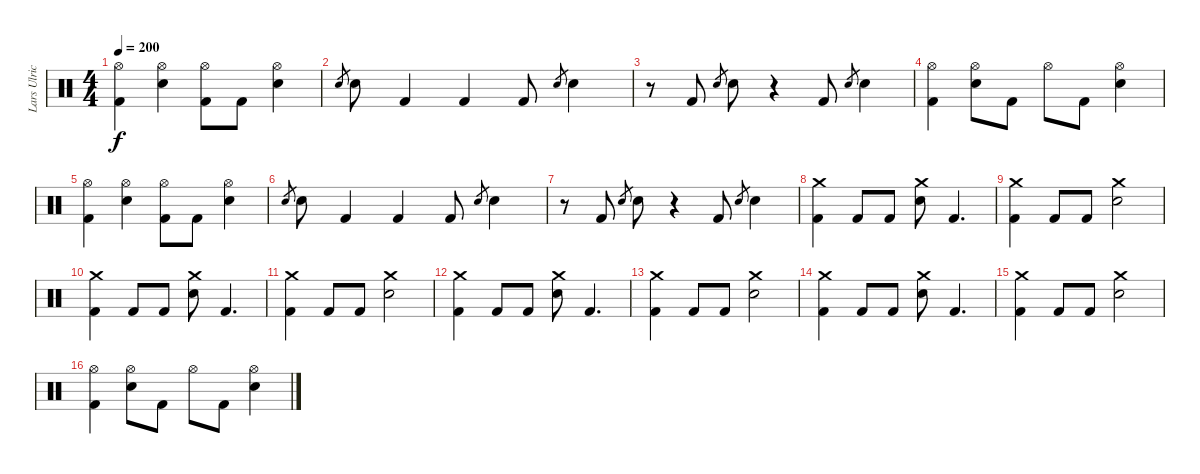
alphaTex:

\track ("Lars Ulrich" "Lars Ulric") {instrument percussion}
\staff {score}
\articulation defaults
\ts (4 4)
\tempo 200
\clef neutral
\ks c
("Hi-Hat (open)" "Kick (hit) 2").4{dy f} ("Hi-Hat (open)" "Electric Snare (hit)").4 ("Hi-Hat (open)" "Kick (hit) 2").8 "Kick (hit) 2".8 ("Hi-Hat (open)" "Electric Snare (hit)").4 |
"Electric Snare (hit)".8{gr} "Electric Snare (hit)".8 "Kick (hit) 2".4 "Kick (hit) 2".4 "Kick (hit) 2".8 "Electric Snare (hit)".8{gr} "Electric Snare (hit)".4 |
r.8 "Kick (hit) 2".8 "Electric Snare (hit)".8{gr} "Electric Snare (hit)".8 r.4 "Kick (hit) 2".8 "Electric Snare (hit)".8{gr} "Electric Snare (hit)".4 |
("Hi-Hat (open)" "Kick (hit) 2").4 ("Hi-Hat (open)" "Electric Snare (hit)").8 "Kick (hit) 2".8 "Hi-Hat (open)".8 "Kick (hit) 2".8 ("Hi-Hat (open)" "Electric Snare (hit)").4 |
("Hi-Hat (open)" "Kick (hit) 2").4 ("Hi-Hat (open)" "Electric Snare (hit)").4 ("Hi-Hat (open)" "Kick (hit) 2").8 "Kick (hit) 2".8 ("Hi-Hat (open)" "Electric Snare (hit)").4 |
"Electric Snare (hit)".8{gr} "Electric Snare (hit)".8 "Kick (hit) 2".4 "Kick (hit) 2".4 "Kick (hit) 2".8 "Electric Snare (hit)".8{gr} "Electric Snare (hit)".4 |
r.8 "Kick (hit) 2".8 "Electric Snare (hit)".8{gr} "Electric Snare (hit)".8 r.4 "Kick (hit) 2".8 "Electric Snare (hit)".8{gr} "Electric Snare (hit)".4 |
("Crash medium (hit)" "Kick (hit) 2").4 "Kick (hit) 2".8 "Kick (hit) 2".8 ("Crash medium (hit)" "Electric Snare (hit)").8 "Kick (hit) 2".4{d} |
("Crash medium (hit)" "Kick (hit) 2").4 "Kick (hit) 2".8 "Kick (hit) 2".8 ("Crash medium (hit)" "Electric Snare (hit)").2 |
("Crash medium (hit)" "Kick (hit) 2").4 "Kick (hit) 2".8 "Kick (hit) 2".8 ("Crash medium (hit)" "Electric Snare (hit)").8 "Kick (hit) 2".4{d} |
("Crash medium (hit)" "Kick (hit) 2").4 "Kick (hit) 2".8 "Kick (hit) 2".8 ("Crash medium (hit)" "Electric Snare (hit)").2 |
("Crash medium (hit)" "Kick (hit) 2").4 "Kick (hit) 2".8 "Kick (hit) 2".8 ("Crash medium (hit)" "Electric Snare (hit)").8 "Kick (hit) 2".4{d} |
("Crash medium (hit)" "Kick (hit) 2").4 "Kick (hit) 2".8 "Kick (hit) 2".8 ("Crash medium (hit)" "Electric Snare (hit)").2 |
("Crash medium (hit)" "Kick (hit) 2").4 "Kick (hit) 2".8 "Kick (hit) 2".8 ("Crash medium (hit)" "Electric Snare (hit)").8 "Kick (hit) 2".4{d} |
("Crash medium (hit)" "Kick (hit) 2").4 "Kick (hit) 2".8 "Kick (hit) 2".8 ("Crash medium (hit)" "Electric Snare (hit)").2 |
("Hi-Hat (open)" "Kick (hit) 2").4 ("Hi-Hat (open)" "Electric Snare (hit)").8 "Kick (hit) 2".8 "Hi-Hat (open)".8 "Kick (hit) 2".8 ("Hi-Hat (open)" "Electric Snare (hit)").4
